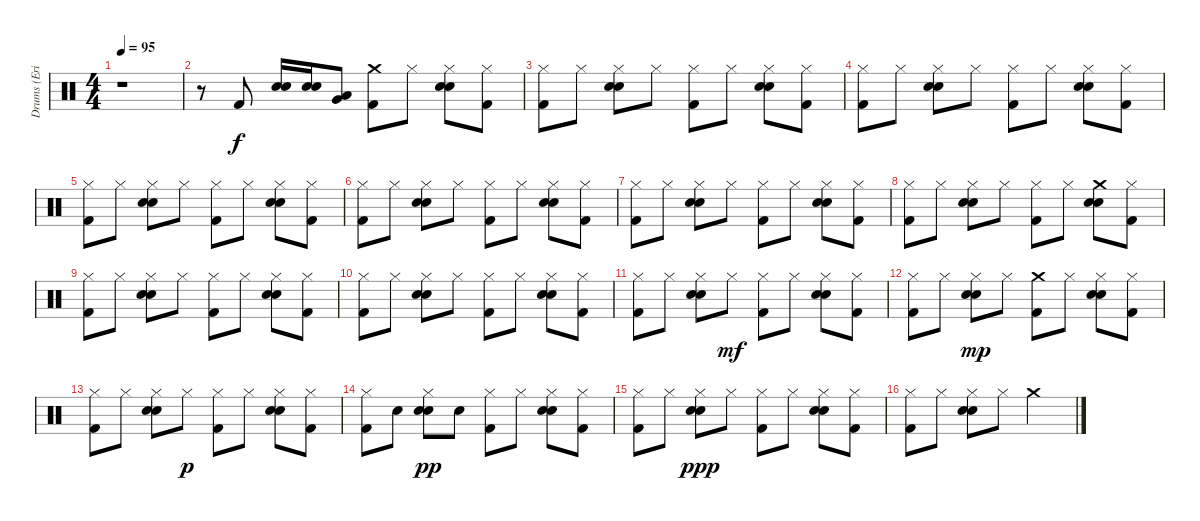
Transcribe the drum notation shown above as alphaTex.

\track ("Drums (Eric Carr)" "Drums (Eri") {instrument percussion}
\staff {score}
\articulation defaults
\ts (4 4)
\tempo 95
\clef neutral
\ks c
r.1{dy f} |
r.8 "Kick (hit) 2".8 ("Snare (hit) 2" "Electric Snare (hit)").16 ("Snare (hit) 2" "Electric Snare (hit)").16 ("Very Low Tom (hit)" "Low Floor Tom (hit)").8 ("Crash medium (hit)" "Kick (hit) 2").8 "Hi-Hat (closed)".8 ("Hi-Hat (closed)" "Electric Snare (hit)" "Snare (hit) 2").8 ("Hi-Hat (closed)" "Kick (hit) 2").8 |
("Hi-Hat (closed)" "Kick (hit) 2").8 "Hi-Hat (closed)".8 ("Hi-Hat (closed)" "Electric Snare (hit)" "Snare (hit) 2").8 "Hi-Hat (closed)".8 ("Hi-Hat (closed)" "Kick (hit) 2").8 "Hi-Hat (closed)".8 ("Hi-Hat (closed)" "Electric Snare (hit)" "Snare (hit) 2").8 ("Hi-Hat (closed)" "Kick (hit) 2").8 |
("Hi-Hat (closed)" "Kick (hit) 2").8 "Hi-Hat (closed)".8 ("Hi-Hat (closed)" "Electric Snare (hit)" "Snare (hit) 2").8 "Hi-Hat (closed)".8 ("Hi-Hat (closed)" "Kick (hit) 2").8 "Hi-Hat (closed)".8 ("Hi-Hat (closed)" "Electric Snare (hit)" "Snare (hit) 2").8 ("Hi-Hat (closed)" "Kick (hit) 2").8 |
("Hi-Hat (closed)" "Kick (hit) 2").8 "Hi-Hat (closed)".8 ("Hi-Hat (closed)" "Electric Snare (hit)" "Snare (hit) 2").8 "Hi-Hat (closed)".8 ("Hi-Hat (closed)" "Kick (hit) 2").8 "Hi-Hat (closed)".8 ("Hi-Hat (closed)" "Electric Snare (hit)" "Snare (hit) 2").8 ("Hi-Hat (closed)" "Kick (hit) 2").8 |
("Hi-Hat (closed)" "Kick (hit) 2").8 "Hi-Hat (closed)".8 ("Hi-Hat (closed)" "Electric Snare (hit)" "Snare (hit) 2").8 "Hi-Hat (closed)".8 ("Hi-Hat (closed)" "Kick (hit) 2").8 "Hi-Hat (closed)".8 ("Hi-Hat (closed)" "Electric Snare (hit)" "Snare (hit) 2").8 ("Hi-Hat (closed)" "Kick (hit) 2").8 |
("Hi-Hat (closed)" "Kick (hit) 2").8 "Hi-Hat (closed)".8 ("Hi-Hat (closed)" "Electric Snare (hit)" "Snare (hit) 2").8 "Hi-Hat (closed)".8 ("Hi-Hat (closed)" "Kick (hit) 2").8 "Hi-Hat (closed)".8 ("Hi-Hat (closed)" "Electric Snare (hit)" "Snare (hit) 2").8 ("Hi-Hat (closed)" "Kick (hit) 2").8 |
("Hi-Hat (closed)" "Kick (hit) 2").8 "Hi-Hat (closed)".8 ("Hi-Hat (closed)" "Electric Snare (hit)" "Snare (hit) 2").8 "Hi-Hat (closed)".8 ("Hi-Hat (closed)" "Kick (hit) 2").8 "Hi-Hat (closed)".8 ("Crash medium (hit)" "Electric Snare (hit)" "Snare (hit) 2").8 ("Hi-Hat (closed)" "Kick (hit) 2").8 |
("Hi-Hat (closed)" "Kick (hit) 2").8 "Hi-Hat (closed)".8 ("Hi-Hat (closed)" "Electric Snare (hit)" "Snare (hit) 2").8 "Hi-Hat (closed)".8 ("Hi-Hat (closed)" "Kick (hit) 2").8 "Hi-Hat (closed)".8 ("Hi-Hat (closed)" "Electric Snare (hit)" "Snare (hit) 2").8 ("Hi-Hat (closed)" "Kick (hit) 2").8 |
("Hi-Hat (closed)" "Kick (hit) 2").8 "Hi-Hat (closed)".8 ("Hi-Hat (closed)" "Electric Snare (hit)" "Snare (hit) 2").8 "Hi-Hat (closed)".8 ("Hi-Hat (closed)" "Kick (hit) 2").8 "Hi-Hat (closed)".8 ("Hi-Hat (closed)" "Electric Snare (hit)" "Snare (hit) 2").8 ("Hi-Hat (closed)" "Kick (hit) 2").8 |
("Hi-Hat (closed)" "Kick (hit) 2").8 "Hi-Hat (closed)".8 ("Hi-Hat (closed)" "Electric Snare (hit)" "Snare (hit) 2").8 "Hi-Hat (closed)".8{dy mf} ("Hi-Hat (closed)" "Kick (hit) 2").8 "Hi-Hat (closed)".8 ("Hi-Hat (closed)" "Electric Snare (hit)" "Snare (hit) 2").8 ("Hi-Hat (closed)" "Kick (hit) 2").8 |
("Hi-Hat (closed)" "Kick (hit) 2").8 "Hi-Hat (closed)".8 ("Hi-Hat (closed)" "Electric Snare (hit)" "Snare (hit) 2").8{dy mp} "Hi-Hat (closed)".8 ("Crash medium (hit)" "Kick (hit) 2").8 "Hi-Hat (closed)".8 ("Hi-Hat (closed)" "Electric Snare (hit)" "Snare (hit) 2").8 ("Hi-Hat (closed)" "Kick (hit) 2").8 |
("Hi-Hat (closed)" "Kick (hit) 2").8 "Hi-Hat (closed)".8 ("Hi-Hat (closed)" "Electric Snare (hit)" "Snare (hit) 2").8 "Hi-Hat (closed)".8{dy p} ("Hi-Hat (closed)" "Kick (hit) 2").8 "Hi-Hat (closed)".8 ("Hi-Hat (closed)" "Electric Snare (hit)" "Snare (hit) 2").8 ("Hi-Hat (closed)" "Kick (hit) 2").8 |
("Hi-Hat (closed)" "Kick (hit) 2").8 "Snare (hit)".8 ("Hi-Hat (closed)" "Electric Snare (hit)" "Snare (hit) 2").8{dy pp} "Snare (hit)".8 ("Hi-Hat (closed)" "Kick (hit) 2").8 "Hi-Hat (closed)".8 ("Hi-Hat (closed)" "Electric Snare (hit)" "Snare (hit) 2").8 ("Hi-Hat (closed)" "Kick (hit) 2").8 |
("Hi-Hat (closed)" "Kick (hit) 2").8 "Hi-Hat (closed)".8 ("Hi-Hat (closed)" "Electric Snare (hit)" "Snare (hit) 2").8{dy ppp} "Hi-Hat (closed)".8 ("Hi-Hat (closed)" "Kick (hit) 2").8 "Hi-Hat (closed)".8 ("Hi-Hat (closed)" "Electric Snare (hit)" "Snare (hit) 2").8 ("Hi-Hat (closed)" "Kick (hit) 2").8 |
("Hi-Hat (closed)" "Kick (hit) 2").8 "Hi-Hat (closed)".8 ("Hi-Hat (closed)" "Electric Snare (hit)" "Snare (hit) 2").8 "Hi-Hat (closed)".8 "Crash medium (hit)".2
